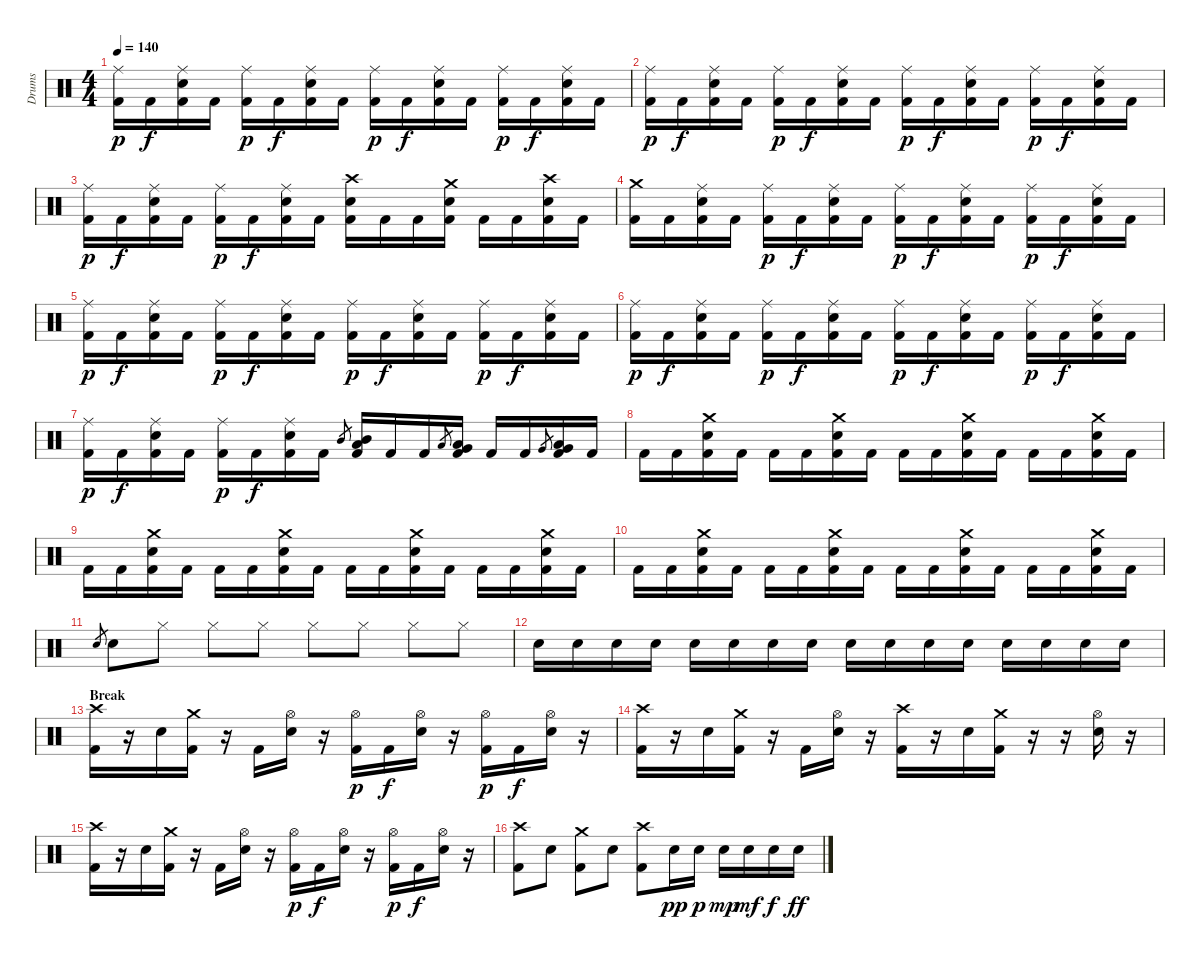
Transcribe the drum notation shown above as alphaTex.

\track ("Drums" "Drums") {instrument percussion}
\staff {score}
\articulation defaults
\ts (4 4)
\tempo 140
\clef neutral
\ks c
("Ride (middle)" "Kick (hit) 2").16{dy p} "Kick (hit) 2".16{dy f} ("Ride (middle)" "Snare (hit) 2" "Kick (hit) 2").16 "Kick (hit) 2".16 ("Ride (middle)" "Kick (hit) 2").16{dy p} "Kick (hit) 2".16{dy f} ("Ride (middle)" "Snare (hit) 2" "Kick (hit) 2").16 "Kick (hit) 2".16 ("Ride (middle)" "Kick (hit) 2").16{dy p} "Kick (hit) 2".16{dy f} ("Ride (middle)" "Snare (hit) 2" "Kick (hit) 2").16 "Kick (hit) 2".16 ("Ride (middle)" "Kick (hit) 2").16{dy p} "Kick (hit) 2".16{dy f} ("Ride (middle)" "Snare (hit) 2" "Kick (hit) 2").16 "Kick (hit) 2".16 |
("Ride (middle)" "Kick (hit) 2").16{dy p} "Kick (hit) 2".16{dy f} ("Ride (middle)" "Snare (hit) 2" "Kick (hit) 2").16 "Kick (hit) 2".16 ("Ride (middle)" "Kick (hit) 2").16{dy p} "Kick (hit) 2".16{dy f} ("Ride (middle)" "Snare (hit) 2" "Kick (hit) 2").16 "Kick (hit) 2".16 ("Ride (middle)" "Kick (hit) 2").16{dy p} "Kick (hit) 2".16{dy f} ("Ride (middle)" "Snare (hit) 2" "Kick (hit) 2").16 "Kick (hit) 2".16 ("Ride (middle)" "Kick (hit) 2").16{dy p} "Kick (hit) 2".16{dy f} ("Ride (middle)" "Snare (hit) 2" "Kick (hit) 2").16 "Kick (hit) 2".16 |
("Ride (middle)" "Kick (hit) 2").16{dy p} "Kick (hit) 2".16{dy f} ("Ride (middle)" "Snare (hit) 2" "Kick (hit) 2").16 "Kick (hit) 2".16 ("Ride (middle)" "Kick (hit) 2").16{dy p} "Kick (hit) 2".16{dy f} ("Ride (middle)" "Snare (hit) 2" "Kick (hit) 2").16 "Kick (hit) 2".16 ("Crash high (hit)" "Snare (hit) 2" "Kick (hit) 2").16 "Kick (hit) 2".16 "Kick (hit) 2".16 ("Crash medium (hit)" "Snare (hit) 2" "Kick (hit) 2").16 "Kick (hit) 2".16 "Kick (hit) 2".16 ("Crash high (hit)" "Snare (hit) 2" "Kick (hit) 2").16 "Kick (hit) 2".16 |
("Crash medium (hit)" "Kick (hit) 2").16 "Kick (hit) 2".16 ("Ride (middle)" "Snare (hit) 2" "Kick (hit) 2").16 "Kick (hit) 2".16 ("Ride (middle)" "Kick (hit) 2").16{dy p} "Kick (hit) 2".16{dy f} ("Ride (middle)" "Snare (hit) 2" "Kick (hit) 2").16 "Kick (hit) 2".16 ("Ride (middle)" "Kick (hit) 2").16{dy p} "Kick (hit) 2".16{dy f} ("Ride (middle)" "Snare (hit) 2" "Kick (hit) 2").16 "Kick (hit) 2".16 ("Ride (middle)" "Kick (hit) 2").16{dy p} "Kick (hit) 2".16{dy f} ("Ride (middle)" "Snare (hit) 2" "Kick (hit) 2").16 "Kick (hit) 2".16 |
("Ride (middle)" "Kick (hit) 2").16{dy p} "Kick (hit) 2".16{dy f} ("Ride (middle)" "Snare (hit) 2" "Kick (hit) 2").16 "Kick (hit) 2".16 ("Ride (middle)" "Kick (hit) 2").16{dy p} "Kick (hit) 2".16{dy f} ("Ride (middle)" "Snare (hit) 2" "Kick (hit) 2").16 "Kick (hit) 2".16 ("Ride (middle)" "Kick (hit) 2").16{dy p} "Kick (hit) 2".16{dy f} ("Ride (middle)" "Snare (hit) 2" "Kick (hit) 2").16 "Kick (hit) 2".16 ("Ride (middle)" "Kick (hit) 2").16{dy p} "Kick (hit) 2".16{dy f} ("Ride (middle)" "Snare (hit) 2" "Kick (hit) 2").16 "Kick (hit) 2".16 |
("Ride (middle)" "Kick (hit) 2").16{dy p} "Kick (hit) 2".16{dy f} ("Ride (middle)" "Snare (hit) 2" "Kick (hit) 2").16 "Kick (hit) 2".16 ("Ride (middle)" "Kick (hit) 2").16{dy p} "Kick (hit) 2".16{dy f} ("Ride (middle)" "Snare (hit) 2" "Kick (hit) 2").16 "Kick (hit) 2".16 ("Ride (middle)" "Kick (hit) 2").16{dy p} "Kick (hit) 2".16{dy f} ("Ride (middle)" "Snare (hit) 2" "Kick (hit) 2").16 "Kick (hit) 2".16 ("Ride (middle)" "Kick (hit) 2").16{dy p} "Kick (hit) 2".16{dy f} ("Ride (middle)" "Snare (hit) 2" "Kick (hit) 2").16 "Kick (hit) 2".16 |
("Ride (middle)" "Kick (hit) 2").16{dy p} "Kick (hit) 2".16{dy f} ("Ride (middle)" "Snare (hit) 2" "Kick (hit) 2").16 "Kick (hit) 2".16 ("Ride (middle)" "Kick (hit) 2").16{dy p} "Kick (hit) 2".16{dy f} ("Ride (middle)" "Snare (hit) 2" "Kick (hit) 2").16 "Kick (hit) 2".16 "Mid Tom (hit)".8{gr} ("Mid Tom (hit)" "Low Tom (hit)" "Kick (hit) 2").16 "Kick (hit) 2".16 "Kick (hit) 2".16 "Low Tom (hit)".8{gr} ("Low Tom (hit)" "Very Low Tom (hit)" "Kick (hit) 2").16 "Kick (hit) 2".16 "Kick (hit) 2".16 "Very Low Tom (hit)".8{gr} ("Very Low Tom (hit)" "Low Floor Tom (hit)" "Kick (hit) 2").16 "Kick (hit) 2".16 |
\section ("" "")
"Kick (hit) 2".16 "Kick (hit) 2".16 ("Crash medium (hit)" "Snare (hit) 2" "Kick (hit) 2").16 "Kick (hit) 2".16 "Kick (hit) 2".16 "Kick (hit) 2".16 ("Crash medium (hit)" "Snare (hit) 2" "Kick (hit) 2").16 "Kick (hit) 2".16 "Kick (hit) 2".16 "Kick (hit) 2".16 ("Crash medium (hit)" "Snare (hit) 2" "Kick (hit) 2").16 "Kick (hit) 2".16 "Kick (hit) 2".16 "Kick (hit) 2".16 ("Crash medium (hit)" "Snare (hit) 2" "Kick (hit) 2").16 "Kick (hit) 2".16 |
"Kick (hit) 2".16 "Kick (hit) 2".16 ("Crash medium (hit)" "Snare (hit) 2" "Kick (hit) 2").16 "Kick (hit) 2".16 "Kick (hit) 2".16 "Kick (hit) 2".16 ("Crash medium (hit)" "Snare (hit) 2" "Kick (hit) 2").16 "Kick (hit) 2".16 "Kick (hit) 2".16 "Kick (hit) 2".16 ("Crash medium (hit)" "Snare (hit) 2" "Kick (hit) 2").16 "Kick (hit) 2".16 "Kick (hit) 2".16 "Kick (hit) 2".16 ("Crash medium (hit)" "Snare (hit) 2" "Kick (hit) 2").16 "Kick (hit) 2".16 |
"Kick (hit) 2".16 "Kick (hit) 2".16 ("Crash medium (hit)" "Snare (hit) 2" "Kick (hit) 2").16 "Kick (hit) 2".16 "Kick (hit) 2".16 "Kick (hit) 2".16 ("Crash medium (hit)" "Snare (hit) 2" "Kick (hit) 2").16 "Kick (hit) 2".16 "Kick (hit) 2".16 "Kick (hit) 2".16 ("Crash medium (hit)" "Snare (hit) 2" "Kick (hit) 2").16 "Kick (hit) 2".16 "Kick (hit) 2".16 "Kick (hit) 2".16 ("Crash medium (hit)" "Snare (hit) 2" "Kick (hit) 2").16 "Kick (hit) 2".16 |
"Snare (hit) 2".8{gr} "Snare (hit) 2".8 "Hi-Hat (closed)".8 "Hi-Hat (closed)".8 "Hi-Hat (closed)".8 "Hi-Hat (closed)".8 "Hi-Hat (closed)".8 "Hi-Hat (closed)".8 "Hi-Hat (closed)".8 |
"Snare (hit) 2".16 "Snare (hit) 2".16 "Snare (hit) 2".16 "Snare (hit) 2".16 "Snare (hit) 2".16 "Snare (hit) 2".16 "Snare (hit) 2".16 "Snare (hit) 2".16 "Snare (hit) 2".16 "Snare (hit) 2".16 "Snare (hit) 2".16 "Snare (hit) 2".16 "Snare (hit) 2".16 "Snare (hit) 2".16 "Snare (hit) 2".16 "Snare (hit) 2".16 |
\section ("" "Break")
("Crash high (hit)" "Kick (hit) 2").16 r.16 "Snare (hit) 2".16 ("Crash medium (hit)" "Kick (hit) 2").16 r.16 "Kick (hit) 2".16 ("Hi-Hat (open)" "Snare (hit) 2").16 r.16 ("Hi-Hat (open)" "Kick (hit) 2").16{dy p} "Kick (hit) 2".16{dy f} ("Hi-Hat (open)" "Snare (hit) 2").16 r.16 ("Hi-Hat (open)" "Kick (hit) 2").16{dy p} "Kick (hit) 2".16{dy f} ("Hi-Hat (open)" "Snare (hit) 2").16 r.16 |
("Crash high (hit)" "Kick (hit) 2").16 r.16 "Snare (hit) 2".16 ("Crash medium (hit)" "Kick (hit) 2").16 r.16 "Kick (hit) 2".16 ("Hi-Hat (open)" "Snare (hit) 2").16 r.16 ("Crash high (hit)" "Kick (hit) 2").16 r.16 "Snare (hit) 2".16 ("Crash medium (hit)" "Kick (hit) 2").16 r.16 r.16 ("Hi-Hat (open)" "Snare (hit) 2").16 r.16 |
("Crash high (hit)" "Kick (hit) 2").16 r.16 "Snare (hit) 2".16 ("Crash medium (hit)" "Kick (hit) 2").16 r.16 "Kick (hit) 2".16 ("Hi-Hat (open)" "Snare (hit) 2").16 r.16 ("Hi-Hat (open)" "Kick (hit) 2").16{dy p} "Kick (hit) 2".16{dy f} ("Hi-Hat (open)" "Snare (hit) 2").16 r.16 ("Hi-Hat (open)" "Kick (hit) 2").16{dy p} "Kick (hit) 2".16{dy f} ("Hi-Hat (open)" "Snare (hit) 2").16 r.16 |
("Crash high (hit)" "Kick (hit) 2").8 "Snare (hit) 2".8 ("Crash medium (hit)" "Kick (hit) 2").8 "Snare (hit) 2".8 ("Crash high (hit)" "Kick (hit) 2").8 "Snare (hit) 2".16{dy pp} "Snare (hit) 2".16{dy p} "Snare (hit) 2".16{dy mp} "Snare (hit) 2".16{dy mf} "Snare (hit) 2".16{dy f} "Snare (hit) 2".16{dy ff}
